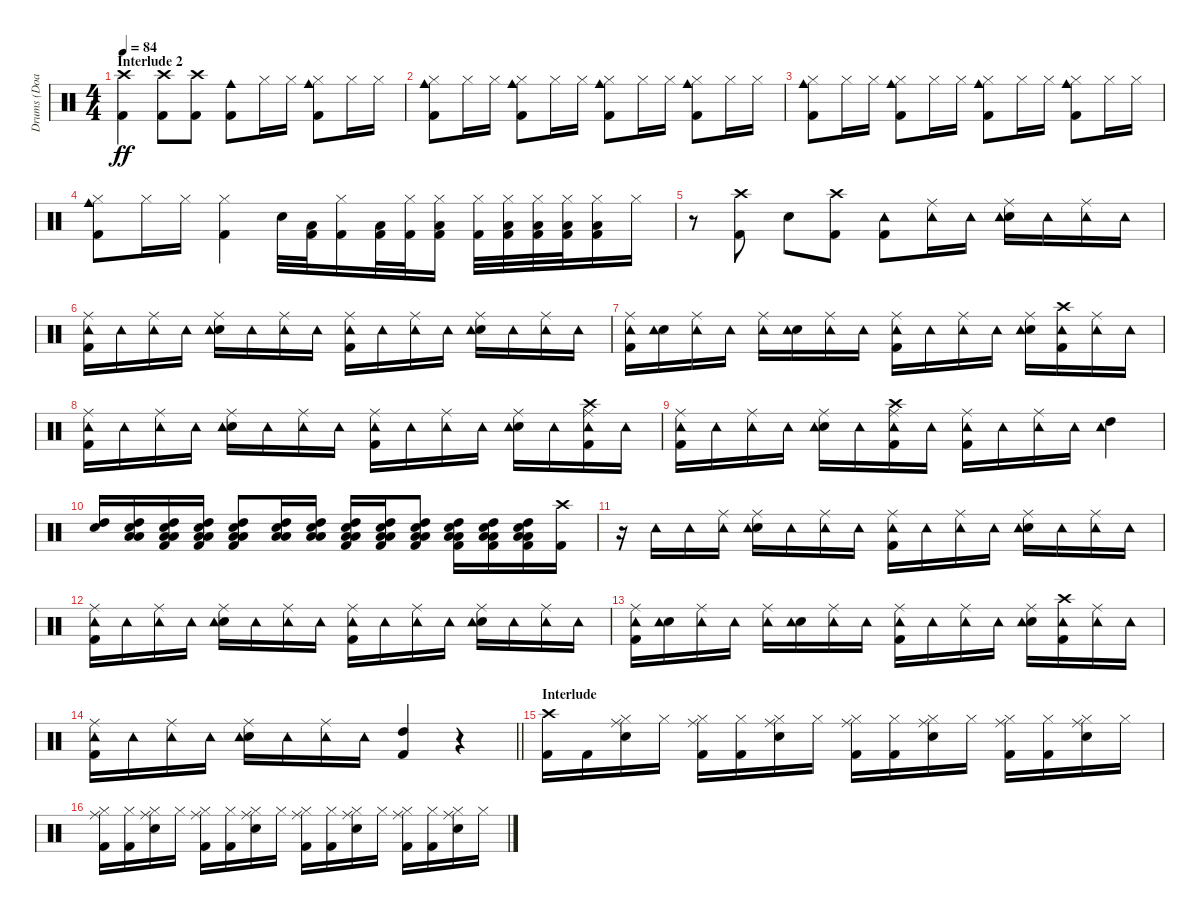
\track ("Drums (Doane Perry)" "Drums (Doa") {instrument percussion}
\staff {score}
\articulation defaults
\ts (4 4)
\section ("" "Interlude 2")
\tempo 84
\clef neutral
\ks c
("Kick (hit) 2" "Crash high (hit)").4{dy ff} ("Kick (hit) 2" "Crash high (hit)").8 ("Kick (hit) 2" "Crash high (hit)").8 ("Kick (hit) 2" "Cowbell medium (hit)").8 "Hi-Hat (closed)".16 "Hi-Hat (closed)".16 ("Kick (hit) 2" "Hi-Hat (closed)" "Cowbell medium (hit)").8 "Hi-Hat (closed)".16 "Hi-Hat (closed)".16 |
("Kick (hit) 2" "Hi-Hat (closed)" "Cowbell medium (hit)").8 "Hi-Hat (closed)".16 "Hi-Hat (closed)".16 ("Kick (hit) 2" "Hi-Hat (closed)" "Cowbell medium (hit)").8 "Hi-Hat (closed)".16 "Hi-Hat (closed)".16 ("Kick (hit) 2" "Hi-Hat (closed)" "Cowbell medium (hit)").8 "Hi-Hat (closed)".16 "Hi-Hat (closed)".16 ("Kick (hit) 2" "Hi-Hat (closed)" "Cowbell medium (hit)").8 "Hi-Hat (closed)".16 "Hi-Hat (closed)".16 |
("Kick (hit) 2" "Hi-Hat (closed)" "Cowbell medium (hit)").8 "Hi-Hat (closed)".16 "Hi-Hat (closed)".16 ("Kick (hit) 2" "Hi-Hat (closed)" "Cowbell medium (hit)").8 "Hi-Hat (closed)".16 "Hi-Hat (closed)".16 ("Kick (hit) 2" "Hi-Hat (closed)" "Cowbell medium (hit)").8 "Hi-Hat (closed)".16 "Hi-Hat (closed)".16 ("Kick (hit) 2" "Hi-Hat (closed)" "Cowbell medium (hit)").8 "Hi-Hat (closed)".16 "Hi-Hat (closed)".16 |
("Kick (hit) 2" "Hi-Hat (closed)" "Cowbell medium (hit)").8 "Hi-Hat (closed)".16 "Hi-Hat (closed)".16 ("Kick (hit) 2" "Hi-Hat (closed)").4 "Snare (hit) 2".32 ("Kick (hit) 2" "Low Tom (hit)").32 ("Kick (hit) 2" "Hi-Hat (closed)").16 ("Kick (hit) 2" "Low Tom (hit)").32 ("Kick (hit) 2" "Hi-Hat (closed)").32 ("Kick (hit) 2" "Hi-Hat (closed)" "Low Tom (hit)").16 ("Kick (hit) 2" "Hi-Hat (closed)").32 ("Kick (hit) 2" "Hi-Hat (closed)" "Low Tom (hit)").32 ("Kick (hit) 2" "Hi-Hat (closed)" "Low Tom (hit)").32 ("Kick (hit) 2" "Hi-Hat (closed)" "Low Tom (hit)").32 ("Kick (hit) 2" "Hi-Hat (closed)" "Low Tom (hit)").16 "Hi-Hat (closed)".16 |
r.8 ("Kick (hit) 2" "Crash high (hit)").8 "Snare (hit) 2".8 ("Kick (hit) 2" "Crash high (hit)").8 ("Kick (hit) 2" "Tambourine (hit)").8 ("Ride (middle)" "Tambourine (hit)").16 "Tambourine (hit)".16 ("Snare (hit) 2" "Ride (middle)" "Tambourine (hit)").16 "Tambourine (hit)".16 ("Ride (middle)" "Tambourine (hit)").16 "Tambourine (hit)".16 |
("Kick (hit) 2" "Ride (middle)" "Tambourine (hit)").16 "Tambourine (hit)".16 ("Ride (middle)" "Tambourine (hit)").16 "Tambourine (hit)".16 ("Snare (hit) 2" "Ride (middle)" "Tambourine (hit)").16 "Tambourine (hit)".16 ("Ride (middle)" "Tambourine (hit)").16 "Tambourine (hit)".16 ("Kick (hit) 2" "Ride (middle)" "Tambourine (hit)").16 "Tambourine (hit)".16 ("Ride (middle)" "Tambourine (hit)").16 "Tambourine (hit)".16 ("Snare (hit) 2" "Ride (middle)" "Tambourine (hit)").16 "Tambourine (hit)".16 ("Ride (middle)" "Tambourine (hit)").16 "Tambourine (hit)".16 |
("Kick (hit) 2" "Ride (middle)" "Tambourine (hit)").16 ("Snare (hit) 2" "Tambourine (hit)").16 ("Ride (middle)" "Tambourine (hit)").16 "Tambourine (hit)".16 ("Ride (middle)" "Tambourine (hit)").16 ("Snare (hit) 2" "Tambourine (hit)").16 ("Ride (middle)" "Tambourine (hit)").16 "Tambourine (hit)".16 ("Kick (hit) 2" "Ride (middle)" "Tambourine (hit)").16 "Tambourine (hit)".16 ("Ride (middle)" "Tambourine (hit)").16 "Tambourine (hit)".16 ("Snare (hit) 2" "Ride (middle)" "Tambourine (hit)").16 ("Kick (hit) 2" "Crash high (hit)" "Tambourine (hit)").16 ("Ride (middle)" "Tambourine (hit)").16 "Tambourine (hit)".16 |
("Kick (hit) 2" "Ride (middle)" "Tambourine (hit)").16 "Tambourine (hit)".16 ("Ride (middle)" "Tambourine (hit)").16 "Tambourine (hit)".16 ("Snare (hit) 2" "Ride (middle)" "Tambourine (hit)").16 "Tambourine (hit)".16 ("Ride (middle)" "Tambourine (hit)").16 "Tambourine (hit)".16 ("Kick (hit) 2" "Ride (middle)" "Tambourine (hit)").16 "Tambourine (hit)".16 ("Ride (middle)" "Tambourine (hit)").16 "Tambourine (hit)".16 ("Snare (hit) 2" "Ride (middle)" "Tambourine (hit)").16 "Tambourine (hit)".16 ("Kick (hit) 2" "Crash high (hit)" "Ride (middle)" "Tambourine (hit)").16 "Tambourine (hit)".16 |
("Kick (hit) 2" "Ride (middle)" "Tambourine (hit)").16 "Tambourine (hit)".16 ("Ride (middle)" "Tambourine (hit)").16 "Tambourine (hit)".16 ("Snare (hit) 2" "Ride (middle)" "Tambourine (hit)").16 "Tambourine (hit)".16 ("Kick (hit) 2" "Crash high (hit)" "Ride (middle)" "Tambourine (hit)").16 "Tambourine (hit)".16 ("Kick (hit) 2" "Ride (middle)" "Tambourine (hit)").16 "Tambourine (hit)".16 ("Ride (middle)" "Tambourine (hit)").16 "Tambourine (hit)".16 ("High Tom (hit)" "Tambourine (hit)").4 |
("Snare (hit) 2" "High Tom (hit)").16 ("Snare (hit) 2" "Low Floor Tom (hit)" "Low Tom (hit)" "High Tom (hit)").16 ("Kick (hit) 2" "Snare (hit) 2" "Low Floor Tom (hit)" "Low Tom (hit)" "High Tom (hit)").16 ("Kick (hit) 2" "Snare (hit) 2" "Low Floor Tom (hit)" "Low Tom (hit)" "High Tom (hit)").16 ("Kick (hit) 2" "Snare (hit) 2" "Low Floor Tom (hit)" "Low Tom (hit)" "High Tom (hit)").8 ("Snare (hit) 2" "Low Floor Tom (hit)" "Low Tom (hit)" "High Tom (hit)").16 ("Snare (hit) 2" "Low Floor Tom (hit)" "Low Tom (hit)" "High Tom (hit)").16 ("Kick (hit) 2" "Snare (hit) 2" "Low Floor Tom (hit)" "Low Tom (hit)" "High Tom (hit)").16 ("Kick (hit) 2" "Snare (hit) 2" "Low Floor Tom (hit)" "Low Tom (hit)" "High Tom (hit)").16 ("Kick (hit) 2" "Snare (hit) 2" "Low Floor Tom (hit)" "Low Tom (hit)" "High Tom (hit)").8 ("Kick (hit) 2" "Snare (hit) 2" "Low Floor Tom (hit)" "Low Tom (hit)" "High Tom (hit)").16 ("Kick (hit) 2" "Snare (hit) 2" "Low Floor Tom (hit)" "Low Tom (hit)" "High Tom (hit)").16 ("Kick (hit) 2" "Snare (hit) 2" "Low Floor Tom (hit)" "Low Tom (hit)" "High Tom (hit)").16 ("Kick (hit) 2" "Crash high (hit)").16 |
r.16 "Tambourine (hit)".16 "Tambourine (hit)".16 ("Ride (middle)" "Tambourine (hit)").16 ("Snare (hit) 2" "Ride (middle)" "Tambourine (hit)").16 "Tambourine (hit)".16 ("Ride (middle)" "Tambourine (hit)").16 "Tambourine (hit)".16 ("Kick (hit) 2" "Ride (middle)" "Tambourine (hit)").16 "Tambourine (hit)".16 ("Ride (middle)" "Tambourine (hit)").16 "Tambourine (hit)".16 ("Snare (hit) 2" "Ride (middle)" "Tambourine (hit)").16 "Tambourine (hit)".16 ("Ride (middle)" "Tambourine (hit)").16 "Tambourine (hit)".16 |
("Kick (hit) 2" "Ride (middle)" "Tambourine (hit)").16 "Tambourine (hit)".16 ("Ride (middle)" "Tambourine (hit)").16 "Tambourine (hit)".16 ("Snare (hit) 2" "Ride (middle)" "Tambourine (hit)").16 "Tambourine (hit)".16 ("Ride (middle)" "Tambourine (hit)").16 "Tambourine (hit)".16 ("Kick (hit) 2" "Ride (middle)" "Tambourine (hit)").16 "Tambourine (hit)".16 ("Ride (middle)" "Tambourine (hit)").16 "Tambourine (hit)".16 ("Snare (hit) 2" "Ride (middle)" "Tambourine (hit)").16 "Tambourine (hit)".16 ("Ride (middle)" "Tambourine (hit)").16 "Tambourine (hit)".16 |
("Kick (hit) 2" "Ride (middle)" "Tambourine (hit)").16 ("Snare (hit) 2" "Tambourine (hit)").16 ("Ride (middle)" "Tambourine (hit)").16 "Tambourine (hit)".16 ("Ride (middle)" "Tambourine (hit)").16 ("Snare (hit) 2" "Tambourine (hit)").16 ("Ride (middle)" "Tambourine (hit)").16 "Tambourine (hit)".16 ("Kick (hit) 2" "Ride (middle)" "Tambourine (hit)").16 "Tambourine (hit)".16 ("Ride (middle)" "Tambourine (hit)").16 "Tambourine (hit)".16 ("Snare (hit) 2" "Ride (middle)" "Tambourine (hit)").16 ("Kick (hit) 2" "Crash high (hit)" "Tambourine (hit)").16 ("Ride (middle)" "Tambourine (hit)").16 "Tambourine (hit)".16 |
\barLineRight lightlight
("Kick (hit) 2" "Ride (middle)" "Tambourine (hit)").16 "Tambourine (hit)".16 ("Ride (middle)" "Tambourine (hit)").16 "Tambourine (hit)".16 ("Snare (hit) 2" "Ride (middle)" "Tambourine (hit)").16 "Tambourine (hit)".16 ("Ride (middle)" "Tambourine (hit)").16 "Tambourine (hit)".16 ("Kick (hit) 2" "High Tom (hit)").4 r.4 |
\section ("" "Interlude")
("Kick (hit) 2" "Crash high (hit)").16 "Kick (hit) 2".16 ("Snare (hit) 2" "Hi-Hat (closed)" "Ride (middle)").16 "Hi-Hat (closed)".16 ("Kick (hit) 2" "Hi-Hat (closed)" "Ride (middle)").16 ("Kick (hit) 2" "Hi-Hat (closed)").16 ("Snare (hit) 2" "Hi-Hat (closed)" "Ride (middle)").16 "Hi-Hat (closed)".16 ("Kick (hit) 2" "Hi-Hat (closed)" "Ride (middle)").16 ("Kick (hit) 2" "Hi-Hat (closed)").16 ("Snare (hit) 2" "Hi-Hat (closed)" "Ride (middle)").16 "Hi-Hat (closed)".16 ("Kick (hit) 2" "Hi-Hat (closed)" "Ride (middle)").16 ("Kick (hit) 2" "Hi-Hat (closed)").16 ("Snare (hit) 2" "Hi-Hat (closed)" "Ride (middle)").16 "Hi-Hat (closed)".16 |
("Kick (hit) 2" "Hi-Hat (closed)" "Ride (middle)").16 ("Kick (hit) 2" "Hi-Hat (closed)").16 ("Snare (hit) 2" "Hi-Hat (closed)" "Ride (middle)").16 "Hi-Hat (closed)".16 ("Kick (hit) 2" "Hi-Hat (closed)" "Ride (middle)").16 ("Kick (hit) 2" "Hi-Hat (closed)").16 ("Snare (hit) 2" "Hi-Hat (closed)" "Ride (middle)").16 "Hi-Hat (closed)".16 ("Kick (hit) 2" "Hi-Hat (closed)" "Ride (middle)").16 ("Kick (hit) 2" "Hi-Hat (closed)").16 ("Snare (hit) 2" "Hi-Hat (closed)" "Ride (middle)").16 "Hi-Hat (closed)".16 ("Kick (hit) 2" "Hi-Hat (closed)" "Ride (middle)").16 ("Kick (hit) 2" "Hi-Hat (closed)").16 ("Snare (hit) 2" "Hi-Hat (closed)" "Ride (middle)").16 "Hi-Hat (closed)".16
